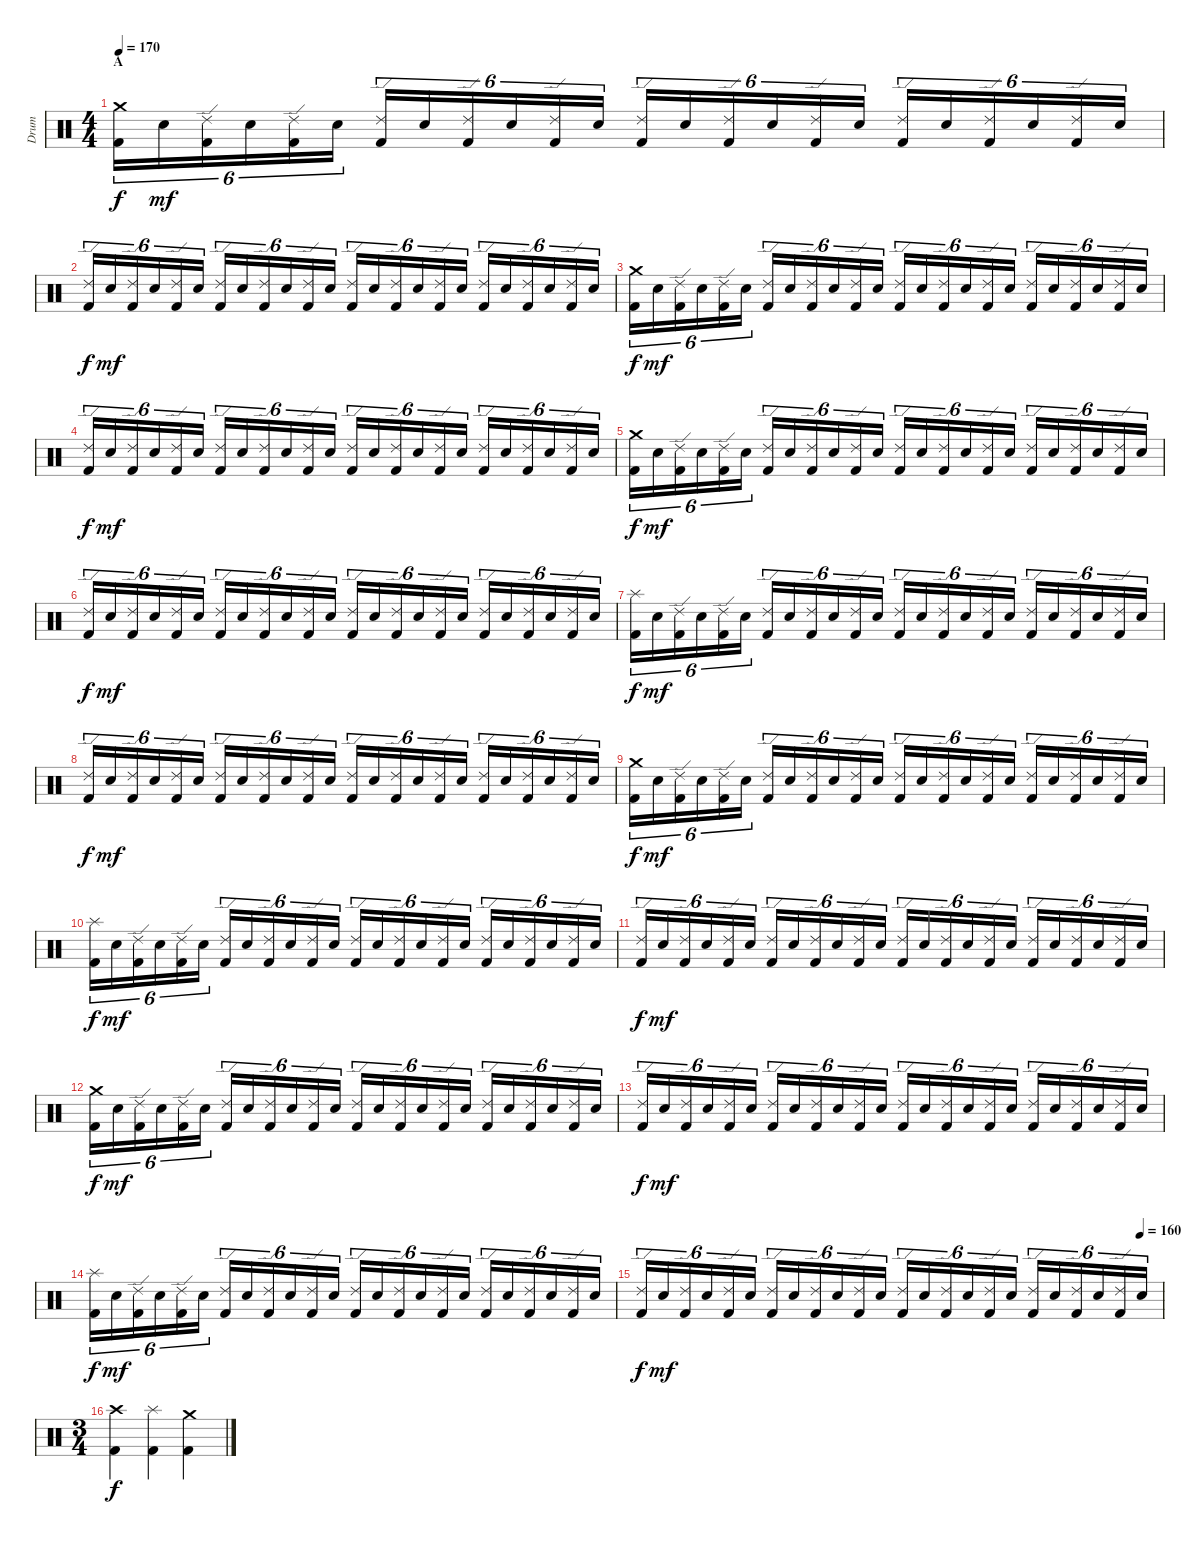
\track ("Drum" "Drum") {instrument percussion}
\staff {score}
\articulation defaults
\ts (4 4)
\section ("" "A")
\tempo 170
\tempo 130
\tempo 170
\clef neutral
\ks c
("Crash medium (hit)" "Kick (hit) 2").16{tu (6 4) dy f} "Electric Snare (hit)".16{tu (6 4) dy mf} ("Ride (edge) 2" "Kick (hit) 2").16{tu (6 4)} "Electric Snare (hit)".16{tu (6 4)} ("Ride (edge) 2" "Kick (hit) 2").16{tu (6 4)} "Electric Snare (hit)".16{tu (6 4)} ("Ride (edge) 2" "Kick (hit) 2").16{tu (6 4)} "Electric Snare (hit)".16{tu (6 4)} ("Ride (edge) 2" "Kick (hit) 2").16{tu (6 4)} "Electric Snare (hit)".16{tu (6 4)} ("Ride (edge) 2" "Kick (hit) 2").16{tu (6 4)} "Electric Snare (hit)".16{tu (6 4)} ("Ride (edge) 2" "Kick (hit) 2").16{tu (6 4)} "Electric Snare (hit)".16{tu (6 4)} ("Ride (edge) 2" "Kick (hit) 2").16{tu (6 4)} "Electric Snare (hit)".16{tu (6 4)} ("Ride (edge) 2" "Kick (hit) 2").16{tu (6 4)} "Electric Snare (hit)".16{tu (6 4)} ("Ride (edge) 2" "Kick (hit) 2").16{tu (6 4)} "Electric Snare (hit)".16{tu (6 4)} ("Ride (edge) 2" "Kick (hit) 2").16{tu (6 4)} "Electric Snare (hit)".16{tu (6 4)} ("Ride (edge) 2" "Kick (hit) 2").16{tu (6 4)} "Electric Snare (hit)".16{tu (6 4)} |
("Ride (edge) 2" "Kick (hit) 2").16{tu (6 4) dy f} "Electric Snare (hit)".16{tu (6 4) dy mf} ("Ride (edge) 2" "Kick (hit) 2").16{tu (6 4)} "Electric Snare (hit)".16{tu (6 4)} ("Ride (edge) 2" "Kick (hit) 2").16{tu (6 4)} "Electric Snare (hit)".16{tu (6 4)} ("Ride (edge) 2" "Kick (hit) 2").16{tu (6 4)} "Electric Snare (hit)".16{tu (6 4)} ("Ride (edge) 2" "Kick (hit) 2").16{tu (6 4)} "Electric Snare (hit)".16{tu (6 4)} ("Ride (edge) 2" "Kick (hit) 2").16{tu (6 4)} "Electric Snare (hit)".16{tu (6 4)} ("Ride (edge) 2" "Kick (hit) 2").16{tu (6 4)} "Electric Snare (hit)".16{tu (6 4)} ("Ride (edge) 2" "Kick (hit) 2").16{tu (6 4)} "Electric Snare (hit)".16{tu (6 4)} ("Ride (edge) 2" "Kick (hit) 2").16{tu (6 4)} "Electric Snare (hit)".16{tu (6 4)} ("Ride (edge) 2" "Kick (hit) 2").16{tu (6 4)} "Electric Snare (hit)".16{tu (6 4)} ("Ride (edge) 2" "Kick (hit) 2").16{tu (6 4)} "Electric Snare (hit)".16{tu (6 4)} ("Ride (edge) 2" "Kick (hit) 2").16{tu (6 4)} "Electric Snare (hit)".16{tu (6 4)} |
("Crash medium (hit)" "Kick (hit) 2").16{tu (6 4) dy f} "Electric Snare (hit)".16{tu (6 4) dy mf} ("Ride (edge) 2" "Kick (hit) 2").16{tu (6 4)} "Electric Snare (hit)".16{tu (6 4)} ("Ride (edge) 2" "Kick (hit) 2").16{tu (6 4)} "Electric Snare (hit)".16{tu (6 4)} ("Ride (edge) 2" "Kick (hit) 2").16{tu (6 4)} "Electric Snare (hit)".16{tu (6 4)} ("Ride (edge) 2" "Kick (hit) 2").16{tu (6 4)} "Electric Snare (hit)".16{tu (6 4)} ("Ride (edge) 2" "Kick (hit) 2").16{tu (6 4)} "Electric Snare (hit)".16{tu (6 4)} ("Ride (edge) 2" "Kick (hit) 2").16{tu (6 4)} "Electric Snare (hit)".16{tu (6 4)} ("Ride (edge) 2" "Kick (hit) 2").16{tu (6 4)} "Electric Snare (hit)".16{tu (6 4)} ("Ride (edge) 2" "Kick (hit) 2").16{tu (6 4)} "Electric Snare (hit)".16{tu (6 4)} ("Ride (edge) 2" "Kick (hit) 2").16{tu (6 4)} "Electric Snare (hit)".16{tu (6 4)} ("Ride (edge) 2" "Kick (hit) 2").16{tu (6 4)} "Electric Snare (hit)".16{tu (6 4)} ("Ride (edge) 2" "Kick (hit) 2").16{tu (6 4)} "Electric Snare (hit)".16{tu (6 4)} |
("Ride (edge) 2" "Kick (hit) 2").16{tu (6 4) dy f} "Electric Snare (hit)".16{tu (6 4) dy mf} ("Ride (edge) 2" "Kick (hit) 2").16{tu (6 4)} "Electric Snare (hit)".16{tu (6 4)} ("Ride (edge) 2" "Kick (hit) 2").16{tu (6 4)} "Electric Snare (hit)".16{tu (6 4)} ("Ride (edge) 2" "Kick (hit) 2").16{tu (6 4)} "Electric Snare (hit)".16{tu (6 4)} ("Ride (edge) 2" "Kick (hit) 2").16{tu (6 4)} "Electric Snare (hit)".16{tu (6 4)} ("Ride (edge) 2" "Kick (hit) 2").16{tu (6 4)} "Electric Snare (hit)".16{tu (6 4)} ("Ride (edge) 2" "Kick (hit) 2").16{tu (6 4)} "Electric Snare (hit)".16{tu (6 4)} ("Ride (edge) 2" "Kick (hit) 2").16{tu (6 4)} "Electric Snare (hit)".16{tu (6 4)} ("Ride (edge) 2" "Kick (hit) 2").16{tu (6 4)} "Electric Snare (hit)".16{tu (6 4)} ("Ride (edge) 2" "Kick (hit) 2").16{tu (6 4)} "Electric Snare (hit)".16{tu (6 4)} ("Ride (edge) 2" "Kick (hit) 2").16{tu (6 4)} "Electric Snare (hit)".16{tu (6 4)} ("Ride (edge) 2" "Kick (hit) 2").16{tu (6 4)} "Electric Snare (hit)".16{tu (6 4)} |
("Crash medium (hit)" "Kick (hit) 2").16{tu (6 4) dy f} "Electric Snare (hit)".16{tu (6 4) dy mf} ("Ride (edge) 2" "Kick (hit) 2").16{tu (6 4)} "Electric Snare (hit)".16{tu (6 4)} ("Ride (edge) 2" "Kick (hit) 2").16{tu (6 4)} "Electric Snare (hit)".16{tu (6 4)} ("Ride (edge) 2" "Kick (hit) 2").16{tu (6 4)} "Electric Snare (hit)".16{tu (6 4)} ("Ride (edge) 2" "Kick (hit) 2").16{tu (6 4)} "Electric Snare (hit)".16{tu (6 4)} ("Ride (edge) 2" "Kick (hit) 2").16{tu (6 4)} "Electric Snare (hit)".16{tu (6 4)} ("Ride (edge) 2" "Kick (hit) 2").16{tu (6 4)} "Electric Snare (hit)".16{tu (6 4)} ("Ride (edge) 2" "Kick (hit) 2").16{tu (6 4)} "Electric Snare (hit)".16{tu (6 4)} ("Ride (edge) 2" "Kick (hit) 2").16{tu (6 4)} "Electric Snare (hit)".16{tu (6 4)} ("Ride (edge) 2" "Kick (hit) 2").16{tu (6 4)} "Electric Snare (hit)".16{tu (6 4)} ("Ride (edge) 2" "Kick (hit) 2").16{tu (6 4)} "Electric Snare (hit)".16{tu (6 4)} ("Ride (edge) 2" "Kick (hit) 2").16{tu (6 4)} "Electric Snare (hit)".16{tu (6 4)} |
("Ride (edge) 2" "Kick (hit) 2").16{tu (6 4) dy f} "Electric Snare (hit)".16{tu (6 4) dy mf} ("Ride (edge) 2" "Kick (hit) 2").16{tu (6 4)} "Electric Snare (hit)".16{tu (6 4)} ("Ride (edge) 2" "Kick (hit) 2").16{tu (6 4)} "Electric Snare (hit)".16{tu (6 4)} ("Ride (edge) 2" "Kick (hit) 2").16{tu (6 4)} "Electric Snare (hit)".16{tu (6 4)} ("Ride (edge) 2" "Kick (hit) 2").16{tu (6 4)} "Electric Snare (hit)".16{tu (6 4)} ("Ride (edge) 2" "Kick (hit) 2").16{tu (6 4)} "Electric Snare (hit)".16{tu (6 4)} ("Ride (edge) 2" "Kick (hit) 2").16{tu (6 4)} "Electric Snare (hit)".16{tu (6 4)} ("Ride (edge) 2" "Kick (hit) 2").16{tu (6 4)} "Electric Snare (hit)".16{tu (6 4)} ("Ride (edge) 2" "Kick (hit) 2").16{tu (6 4)} "Electric Snare (hit)".16{tu (6 4)} ("Ride (edge) 2" "Kick (hit) 2").16{tu (6 4)} "Electric Snare (hit)".16{tu (6 4)} ("Ride (edge) 2" "Kick (hit) 2").16{tu (6 4)} "Electric Snare (hit)".16{tu (6 4)} ("Ride (edge) 2" "Kick (hit) 2").16{tu (6 4)} "Electric Snare (hit)".16{tu (6 4)} |
("Splash (hit)" "Kick (hit) 2").16{tu (6 4) dy f} "Electric Snare (hit)".16{tu (6 4) dy mf} ("Ride (edge) 2" "Kick (hit) 2").16{tu (6 4)} "Electric Snare (hit)".16{tu (6 4)} ("Ride (edge) 2" "Kick (hit) 2").16{tu (6 4)} "Electric Snare (hit)".16{tu (6 4)} ("Ride (edge) 2" "Kick (hit) 2").16{tu (6 4)} "Electric Snare (hit)".16{tu (6 4)} ("Ride (edge) 2" "Kick (hit) 2").16{tu (6 4)} "Electric Snare (hit)".16{tu (6 4)} ("Ride (edge) 2" "Kick (hit) 2").16{tu (6 4)} "Electric Snare (hit)".16{tu (6 4)} ("Ride (edge) 2" "Kick (hit) 2").16{tu (6 4)} "Electric Snare (hit)".16{tu (6 4)} ("Ride (edge) 2" "Kick (hit) 2").16{tu (6 4)} "Electric Snare (hit)".16{tu (6 4)} ("Ride (edge) 2" "Kick (hit) 2").16{tu (6 4)} "Electric Snare (hit)".16{tu (6 4)} ("Ride (edge) 2" "Kick (hit) 2").16{tu (6 4)} "Electric Snare (hit)".16{tu (6 4)} ("Ride (edge) 2" "Kick (hit) 2").16{tu (6 4)} "Electric Snare (hit)".16{tu (6 4)} ("Ride (edge) 2" "Kick (hit) 2").16{tu (6 4)} "Electric Snare (hit)".16{tu (6 4)} |
("Ride (edge) 2" "Kick (hit) 2").16{tu (6 4) dy f} "Electric Snare (hit)".16{tu (6 4) dy mf} ("Ride (edge) 2" "Kick (hit) 2").16{tu (6 4)} "Electric Snare (hit)".16{tu (6 4)} ("Ride (edge) 2" "Kick (hit) 2").16{tu (6 4)} "Electric Snare (hit)".16{tu (6 4)} ("Ride (edge) 2" "Kick (hit) 2").16{tu (6 4)} "Electric Snare (hit)".16{tu (6 4)} ("Ride (edge) 2" "Kick (hit) 2").16{tu (6 4)} "Electric Snare (hit)".16{tu (6 4)} ("Ride (edge) 2" "Kick (hit) 2").16{tu (6 4)} "Electric Snare (hit)".16{tu (6 4)} ("Ride (edge) 2" "Kick (hit) 2").16{tu (6 4)} "Electric Snare (hit)".16{tu (6 4)} ("Ride (edge) 2" "Kick (hit) 2").16{tu (6 4)} "Electric Snare (hit)".16{tu (6 4)} ("Ride (edge) 2" "Kick (hit) 2").16{tu (6 4)} "Electric Snare (hit)".16{tu (6 4)} ("Ride (edge) 2" "Kick (hit) 2").16{tu (6 4)} "Electric Snare (hit)".16{tu (6 4)} ("Ride (edge) 2" "Kick (hit) 2").16{tu (6 4)} "Electric Snare (hit)".16{tu (6 4)} ("Ride (edge) 2" "Kick (hit) 2").16{tu (6 4)} "Electric Snare (hit)".16{tu (6 4)} |
("Crash medium (hit)" "Kick (hit) 2").16{tu (6 4) dy f} "Electric Snare (hit)".16{tu (6 4) dy mf} ("Ride (edge) 2" "Kick (hit) 2").16{tu (6 4)} "Electric Snare (hit)".16{tu (6 4)} ("Ride (edge) 2" "Kick (hit) 2").16{tu (6 4)} "Electric Snare (hit)".16{tu (6 4)} ("Ride (edge) 2" "Kick (hit) 2").16{tu (6 4)} "Electric Snare (hit)".16{tu (6 4)} ("Ride (edge) 2" "Kick (hit) 2").16{tu (6 4)} "Electric Snare (hit)".16{tu (6 4)} ("Ride (edge) 2" "Kick (hit) 2").16{tu (6 4)} "Electric Snare (hit)".16{tu (6 4)} ("Ride (edge) 2" "Kick (hit) 2").16{tu (6 4)} "Electric Snare (hit)".16{tu (6 4)} ("Ride (edge) 2" "Kick (hit) 2").16{tu (6 4)} "Electric Snare (hit)".16{tu (6 4)} ("Ride (edge) 2" "Kick (hit) 2").16{tu (6 4)} "Electric Snare (hit)".16{tu (6 4)} ("Ride (edge) 2" "Kick (hit) 2").16{tu (6 4)} "Electric Snare (hit)".16{tu (6 4)} ("Ride (edge) 2" "Kick (hit) 2").16{tu (6 4)} "Electric Snare (hit)".16{tu (6 4)} ("Ride (edge) 2" "Kick (hit) 2").16{tu (6 4)} "Electric Snare (hit)".16{tu (6 4)} |
("Splash (hit)" "Kick (hit) 2").16{tu (6 4) dy f} "Electric Snare (hit)".16{tu (6 4) dy mf} ("Ride (edge) 2" "Kick (hit) 2").16{tu (6 4)} "Electric Snare (hit)".16{tu (6 4)} ("Ride (edge) 2" "Kick (hit) 2").16{tu (6 4)} "Electric Snare (hit)".16{tu (6 4)} ("Ride (edge) 2" "Kick (hit) 2").16{tu (6 4)} "Electric Snare (hit)".16{tu (6 4)} ("Ride (edge) 2" "Kick (hit) 2").16{tu (6 4)} "Electric Snare (hit)".16{tu (6 4)} ("Ride (edge) 2" "Kick (hit) 2").16{tu (6 4)} "Electric Snare (hit)".16{tu (6 4)} ("Ride (edge) 2" "Kick (hit) 2").16{tu (6 4)} "Electric Snare (hit)".16{tu (6 4)} ("Ride (edge) 2" "Kick (hit) 2").16{tu (6 4)} "Electric Snare (hit)".16{tu (6 4)} ("Ride (edge) 2" "Kick (hit) 2").16{tu (6 4)} "Electric Snare (hit)".16{tu (6 4)} ("Ride (edge) 2" "Kick (hit) 2").16{tu (6 4)} "Electric Snare (hit)".16{tu (6 4)} ("Ride (edge) 2" "Kick (hit) 2").16{tu (6 4)} "Electric Snare (hit)".16{tu (6 4)} ("Ride (edge) 2" "Kick (hit) 2").16{tu (6 4)} "Electric Snare (hit)".16{tu (6 4)} |
("Ride (edge) 2" "Kick (hit) 2").16{tu (6 4) dy f} "Electric Snare (hit)".16{tu (6 4) dy mf} ("Ride (edge) 2" "Kick (hit) 2").16{tu (6 4)} "Electric Snare (hit)".16{tu (6 4)} ("Ride (edge) 2" "Kick (hit) 2").16{tu (6 4)} "Electric Snare (hit)".16{tu (6 4)} ("Ride (edge) 2" "Kick (hit) 2").16{tu (6 4)} "Electric Snare (hit)".16{tu (6 4)} ("Ride (edge) 2" "Kick (hit) 2").16{tu (6 4)} "Electric Snare (hit)".16{tu (6 4)} ("Ride (edge) 2" "Kick (hit) 2").16{tu (6 4)} "Electric Snare (hit)".16{tu (6 4)} ("Ride (edge) 2" "Kick (hit) 2").16{tu (6 4)} "Electric Snare (hit)".16{tu (6 4)} ("Ride (edge) 2" "Kick (hit) 2").16{tu (6 4)} "Electric Snare (hit)".16{tu (6 4)} ("Ride (edge) 2" "Kick (hit) 2").16{tu (6 4)} "Electric Snare (hit)".16{tu (6 4)} ("Ride (edge) 2" "Kick (hit) 2").16{tu (6 4)} "Electric Snare (hit)".16{tu (6 4)} ("Ride (edge) 2" "Kick (hit) 2").16{tu (6 4)} "Electric Snare (hit)".16{tu (6 4)} ("Ride (edge) 2" "Kick (hit) 2").16{tu (6 4)} "Electric Snare (hit)".16{tu (6 4)} |
("Crash medium (hit)" "Kick (hit) 2").16{tu (6 4) dy f} "Electric Snare (hit)".16{tu (6 4) dy mf} ("Ride (edge) 2" "Kick (hit) 2").16{tu (6 4)} "Electric Snare (hit)".16{tu (6 4)} ("Ride (edge) 2" "Kick (hit) 2").16{tu (6 4)} "Electric Snare (hit)".16{tu (6 4)} ("Ride (edge) 2" "Kick (hit) 2").16{tu (6 4)} "Electric Snare (hit)".16{tu (6 4)} ("Ride (edge) 2" "Kick (hit) 2").16{tu (6 4)} "Electric Snare (hit)".16{tu (6 4)} ("Ride (edge) 2" "Kick (hit) 2").16{tu (6 4)} "Electric Snare (hit)".16{tu (6 4)} ("Ride (edge) 2" "Kick (hit) 2").16{tu (6 4)} "Electric Snare (hit)".16{tu (6 4)} ("Ride (edge) 2" "Kick (hit) 2").16{tu (6 4)} "Electric Snare (hit)".16{tu (6 4)} ("Ride (edge) 2" "Kick (hit) 2").16{tu (6 4)} "Electric Snare (hit)".16{tu (6 4)} ("Ride (edge) 2" "Kick (hit) 2").16{tu (6 4)} "Electric Snare (hit)".16{tu (6 4)} ("Ride (edge) 2" "Kick (hit) 2").16{tu (6 4)} "Electric Snare (hit)".16{tu (6 4)} ("Ride (edge) 2" "Kick (hit) 2").16{tu (6 4)} "Electric Snare (hit)".16{tu (6 4)} |
("Ride (edge) 2" "Kick (hit) 2").16{tu (6 4) dy f} "Electric Snare (hit)".16{tu (6 4) dy mf} ("Ride (edge) 2" "Kick (hit) 2").16{tu (6 4)} "Electric Snare (hit)".16{tu (6 4)} ("Ride (edge) 2" "Kick (hit) 2").16{tu (6 4)} "Electric Snare (hit)".16{tu (6 4)} ("Ride (edge) 2" "Kick (hit) 2").16{tu (6 4)} "Electric Snare (hit)".16{tu (6 4)} ("Ride (edge) 2" "Kick (hit) 2").16{tu (6 4)} "Electric Snare (hit)".16{tu (6 4)} ("Ride (edge) 2" "Kick (hit) 2").16{tu (6 4)} "Electric Snare (hit)".16{tu (6 4)} ("Ride (edge) 2" "Kick (hit) 2").16{tu (6 4)} "Electric Snare (hit)".16{tu (6 4)} ("Ride (edge) 2" "Kick (hit) 2").16{tu (6 4)} "Electric Snare (hit)".16{tu (6 4)} ("Ride (edge) 2" "Kick (hit) 2").16{tu (6 4)} "Electric Snare (hit)".16{tu (6 4)} ("Ride (edge) 2" "Kick (hit) 2").16{tu (6 4)} "Electric Snare (hit)".16{tu (6 4)} ("Ride (edge) 2" "Kick (hit) 2").16{tu (6 4)} "Electric Snare (hit)".16{tu (6 4)} ("Ride (edge) 2" "Kick (hit) 2").16{tu (6 4)} "Electric Snare (hit)".16{tu (6 4)} |
("Splash (hit)" "Kick (hit) 2").16{tu (6 4) dy f} "Electric Snare (hit)".16{tu (6 4) dy mf} ("Ride (edge) 2" "Kick (hit) 2").16{tu (6 4)} "Electric Snare (hit)".16{tu (6 4)} ("Ride (edge) 2" "Kick (hit) 2").16{tu (6 4)} "Electric Snare (hit)".16{tu (6 4)} ("Ride (edge) 2" "Kick (hit) 2").16{tu (6 4)} "Electric Snare (hit)".16{tu (6 4)} ("Ride (edge) 2" "Kick (hit) 2").16{tu (6 4)} "Electric Snare (hit)".16{tu (6 4)} ("Ride (edge) 2" "Kick (hit) 2").16{tu (6 4)} "Electric Snare (hit)".16{tu (6 4)} ("Ride (edge) 2" "Kick (hit) 2").16{tu (6 4)} "Electric Snare (hit)".16{tu (6 4)} ("Ride (edge) 2" "Kick (hit) 2").16{tu (6 4)} "Electric Snare (hit)".16{tu (6 4)} ("Ride (edge) 2" "Kick (hit) 2").16{tu (6 4)} "Electric Snare (hit)".16{tu (6 4)} ("Ride (edge) 2" "Kick (hit) 2").16{tu (6 4)} "Electric Snare (hit)".16{tu (6 4)} ("Ride (edge) 2" "Kick (hit) 2").16{tu (6 4)} "Electric Snare (hit)".16{tu (6 4)} ("Ride (edge) 2" "Kick (hit) 2").16{tu (6 4)} "Electric Snare (hit)".16{tu (6 4)} |
\tempo (160 0.9583333333333334)
("Ride (edge) 2" "Kick (hit) 2").16{tu (6 4) dy f} "Electric Snare (hit)".16{tu (6 4) dy mf} ("Ride (edge) 2" "Kick (hit) 2").16{tu (6 4)} "Electric Snare (hit)".16{tu (6 4)} ("Ride (edge) 2" "Kick (hit) 2").16{tu (6 4)} "Electric Snare (hit)".16{tu (6 4)} ("Ride (edge) 2" "Kick (hit) 2").16{tu (6 4)} "Electric Snare (hit)".16{tu (6 4)} ("Ride (edge) 2" "Kick (hit) 2").16{tu (6 4)} "Electric Snare (hit)".16{tu (6 4)} ("Ride (edge) 2" "Kick (hit) 2").16{tu (6 4)} "Electric Snare (hit)".16{tu (6 4)} ("Ride (edge) 2" "Kick (hit) 2").16{tu (6 4)} "Electric Snare (hit)".16{tu (6 4)} ("Ride (edge) 2" "Kick (hit) 2").16{tu (6 4)} "Electric Snare (hit)".16{tu (6 4)} ("Ride (edge) 2" "Kick (hit) 2").16{tu (6 4)} "Electric Snare (hit)".16{tu (6 4)} ("Ride (edge) 2" "Kick (hit) 2").16{tu (6 4)} "Electric Snare (hit)".16{tu (6 4)} ("Ride (edge) 2" "Kick (hit) 2").16{tu (6 4)} "Electric Snare (hit)".16{tu (6 4)} ("Ride (edge) 2" "Kick (hit) 2").16{tu (6 4)} "Electric Snare (hit)".16{tu (6 4)} |
\ts (3 4)
("Crash high (hit)" "Kick (hit) 2").4{dy f} ("Splash (hit)" "Kick (hit) 2").4 ("Crash medium (hit)" "Kick (hit) 2").4
